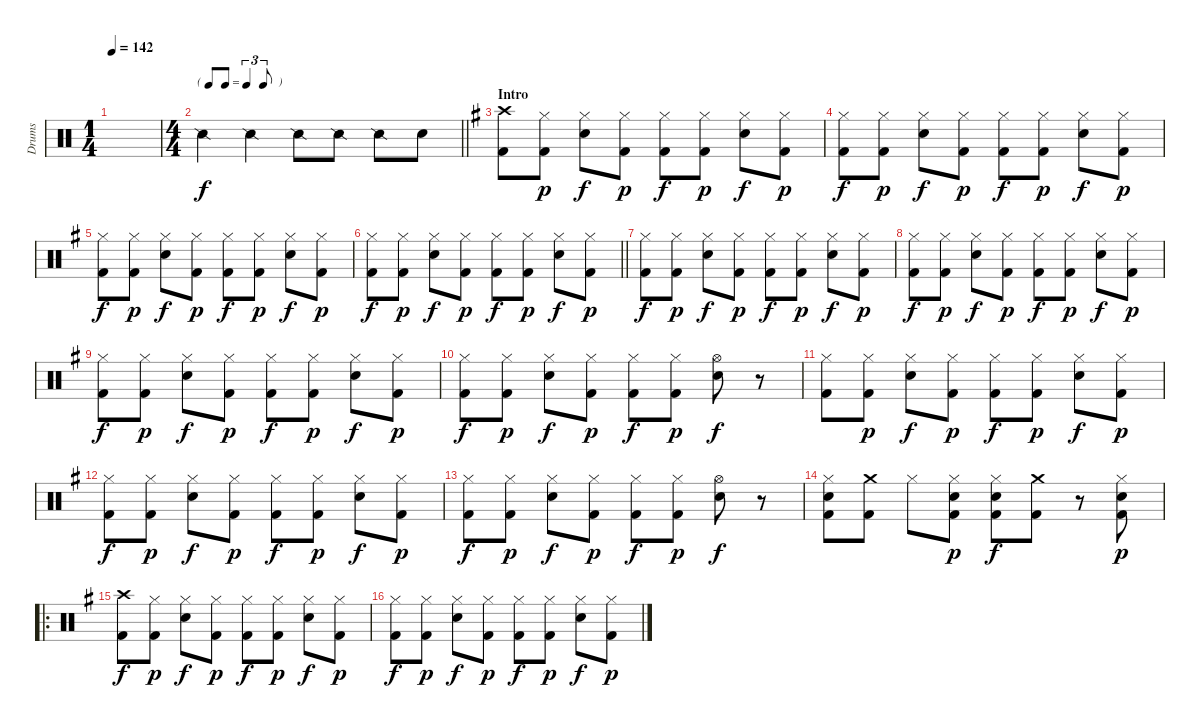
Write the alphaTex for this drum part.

\track ("Drums" "Drums") {instrument percussion}
\staff {score}
\articulation defaults
\ts (1 4)
\tempo 142
\clef neutral
\ks c
|
\ts (4 4)
\tf triplet8th
\barLineRight lightlight "Snare (side stick) 2".4 "Snare (side stick) 2".4 "Snare (side stick) 2".8 "Snare (side stick) 2".8 "Snare (side stick) 2".8 "Snare (hit) 2".8
|
\section ("" "Intro")
\ks g
("Crash high (hit)" "Kick (hit) 2").8 ("Hi-Hat (closed)" "Kick (hit) 2").8{dy p} ("Hi-Hat (closed)" "Snare (hit) 2").8{dy f} ("Hi-Hat (closed)" "Kick (hit) 2").8{dy p} ("Hi-Hat (closed)" "Kick (hit) 2").8{dy f} ("Hi-Hat (closed)" "Kick (hit) 2").8{dy p} ("Hi-Hat (closed)" "Snare (hit) 2").8{dy f} ("Hi-Hat (closed)" "Kick (hit) 2").8{dy p} |
("Hi-Hat (closed)" "Kick (hit) 2").8{dy f} ("Hi-Hat (closed)" "Kick (hit) 2").8{dy p} ("Hi-Hat (closed)" "Snare (hit) 2").8{dy f} ("Hi-Hat (closed)" "Kick (hit) 2").8{dy p} ("Hi-Hat (closed)" "Kick (hit) 2").8{dy f} ("Hi-Hat (closed)" "Kick (hit) 2").8{dy p} ("Hi-Hat (closed)" "Snare (hit) 2").8{dy f} ("Hi-Hat (closed)" "Kick (hit) 2").8{dy p} |
("Hi-Hat (closed)" "Kick (hit) 2").8{dy f} ("Hi-Hat (closed)" "Kick (hit) 2").8{dy p} ("Hi-Hat (closed)" "Snare (hit) 2").8{dy f} ("Hi-Hat (closed)" "Kick (hit) 2").8{dy p} ("Hi-Hat (closed)" "Kick (hit) 2").8{dy f} ("Hi-Hat (closed)" "Kick (hit) 2").8{dy p} ("Hi-Hat (closed)" "Snare (hit) 2").8{dy f} ("Hi-Hat (closed)" "Kick (hit) 2").8{dy p} |
\barLineRight lightlight
("Hi-Hat (closed)" "Kick (hit) 2").8{dy f} ("Hi-Hat (closed)" "Kick (hit) 2").8{dy p} ("Hi-Hat (closed)" "Snare (hit) 2").8{dy f} ("Hi-Hat (closed)" "Kick (hit) 2").8{dy p} ("Hi-Hat (closed)" "Kick (hit) 2").8{dy f} ("Hi-Hat (closed)" "Kick (hit) 2").8{dy p} ("Hi-Hat (closed)" "Snare (hit) 2").8{dy f} ("Hi-Hat (closed)" "Kick (hit) 2").8{dy p} |
("Hi-Hat (closed)" "Kick (hit) 2").8{dy f} ("Hi-Hat (closed)" "Kick (hit) 2").8{dy p} ("Hi-Hat (closed)" "Snare (hit) 2").8{dy f} ("Hi-Hat (closed)" "Kick (hit) 2").8{dy p} ("Hi-Hat (closed)" "Kick (hit) 2").8{dy f} ("Hi-Hat (closed)" "Kick (hit) 2").8{dy p} ("Hi-Hat (closed)" "Snare (hit) 2").8{dy f} ("Hi-Hat (closed)" "Kick (hit) 2").8{dy p} |
("Hi-Hat (closed)" "Kick (hit) 2").8{dy f} ("Hi-Hat (closed)" "Kick (hit) 2").8{dy p} ("Hi-Hat (closed)" "Snare (hit) 2").8{dy f} ("Hi-Hat (closed)" "Kick (hit) 2").8{dy p} ("Hi-Hat (closed)" "Kick (hit) 2").8{dy f} ("Hi-Hat (closed)" "Kick (hit) 2").8{dy p} ("Hi-Hat (closed)" "Snare (hit) 2").8{dy f} ("Hi-Hat (closed)" "Kick (hit) 2").8{dy p} |
("Hi-Hat (closed)" "Kick (hit) 2").8{dy f} ("Hi-Hat (closed)" "Kick (hit) 2").8{dy p} ("Hi-Hat (closed)" "Snare (hit) 2").8{dy f} ("Hi-Hat (closed)" "Kick (hit) 2").8{dy p} ("Hi-Hat (closed)" "Kick (hit) 2").8{dy f} ("Hi-Hat (closed)" "Kick (hit) 2").8{dy p} ("Hi-Hat (closed)" "Snare (hit) 2").8{dy f} ("Hi-Hat (closed)" "Kick (hit) 2").8{dy p} |
("Hi-Hat (closed)" "Kick (hit) 2").8{dy f} ("Hi-Hat (closed)" "Kick (hit) 2").8{dy p} ("Hi-Hat (closed)" "Snare (hit) 2").8{dy f} ("Hi-Hat (closed)" "Kick (hit) 2").8{dy p} ("Hi-Hat (closed)" "Kick (hit) 2").8{dy f} ("Hi-Hat (closed)" "Kick (hit) 2").8{dy p} ("Hi-Hat (open)" "Snare (hit) 2").8{dy f} r.8 |
("Hi-Hat (closed)" "Kick (hit) 2").8 ("Hi-Hat (closed)" "Kick (hit) 2").8{dy p} ("Hi-Hat (closed)" "Snare (hit) 2").8{dy f} ("Hi-Hat (closed)" "Kick (hit) 2").8{dy p} ("Hi-Hat (closed)" "Kick (hit) 2").8{dy f} ("Hi-Hat (closed)" "Kick (hit) 2").8{dy p} ("Hi-Hat (closed)" "Snare (hit) 2").8{dy f} ("Hi-Hat (closed)" "Kick (hit) 2").8{dy p} |
("Hi-Hat (closed)" "Kick (hit) 2").8{dy f} ("Hi-Hat (closed)" "Kick (hit) 2").8{dy p} ("Hi-Hat (closed)" "Snare (hit) 2").8{dy f} ("Hi-Hat (closed)" "Kick (hit) 2").8{dy p} ("Hi-Hat (closed)" "Kick (hit) 2").8{dy f} ("Hi-Hat (closed)" "Kick (hit) 2").8{dy p} ("Hi-Hat (closed)" "Snare (hit) 2").8{dy f} ("Hi-Hat (closed)" "Kick (hit) 2").8{dy p} |
("Hi-Hat (closed)" "Kick (hit) 2").8{dy f} ("Hi-Hat (closed)" "Kick (hit) 2").8{dy p} ("Hi-Hat (closed)" "Snare (hit) 2").8{dy f} ("Hi-Hat (closed)" "Kick (hit) 2").8{dy p} ("Hi-Hat (closed)" "Kick (hit) 2").8{dy f} ("Hi-Hat (closed)" "Kick (hit) 2").8{dy p} ("Hi-Hat (open)" "Snare (hit) 2").8{dy f} r.8 |
("Hi-Hat (closed)" "Snare (hit) 2" "Kick (hit) 2").8 ("Crash medium (hit)" "Kick (hit) 2").8 "Hi-Hat (closed)".8 ("Hi-Hat (closed)" "Snare (hit) 2" "Kick (hit) 2").8{dy p} ("Hi-Hat (closed)" "Snare (hit) 2" "Kick (hit) 2").8{dy f} ("Crash medium (hit)" "Kick (hit) 2").8 r.8 ("Hi-Hat (closed)" "Snare (hit) 2" "Kick (hit) 2").8{dy p} |
\ro
("Crash high (hit)" "Kick (hit) 2").8{dy f} ("Hi-Hat (closed)" "Kick (hit) 2").8{dy p} ("Hi-Hat (closed)" "Snare (hit) 2").8{dy f} ("Hi-Hat (closed)" "Kick (hit) 2").8{dy p} ("Hi-Hat (closed)" "Kick (hit) 2").8{dy f} ("Hi-Hat (closed)" "Kick (hit) 2").8{dy p} ("Hi-Hat (closed)" "Snare (hit) 2").8{dy f} ("Hi-Hat (closed)" "Kick (hit) 2").8{dy p} |
("Hi-Hat (closed)" "Kick (hit) 2").8{dy f} ("Hi-Hat (closed)" "Kick (hit) 2").8{dy p} ("Hi-Hat (closed)" "Snare (hit) 2").8{dy f} ("Hi-Hat (closed)" "Kick (hit) 2").8{dy p} ("Hi-Hat (closed)" "Kick (hit) 2").8{dy f} ("Hi-Hat (closed)" "Kick (hit) 2").8{dy p} ("Hi-Hat (closed)" "Snare (hit) 2").8{dy f} ("Hi-Hat (closed)" "Kick (hit) 2").8{dy p}
